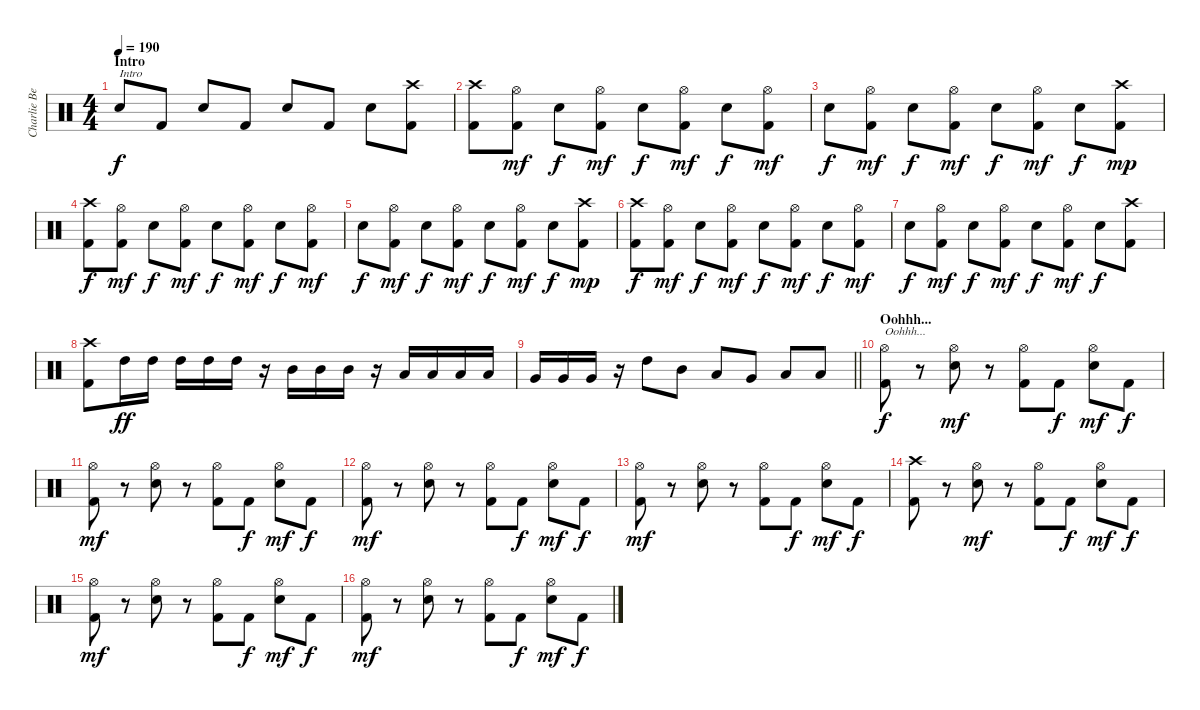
\track ("Charlie Benante" "Charlie Be") {instrument percussion}
\staff {score}
\articulation defaults
\ts (4 4)
\section ("" "Intro")
\tempo 190
\clef neutral
\ks c "Electric Snare (hit)".8{txt "Intro" dy f} "Kick (hit) 2".8 "Electric Snare (hit)".8 "Kick (hit) 2".8 "Electric Snare (hit)".8 "Kick (hit) 2".8 "Electric Snare (hit)".8
("Crash high (hit)" "Kick (hit) 2").8 |
("Crash high (hit)" "Kick (hit) 2").8 ("Hi-Hat (open)" "Kick (hit) 2").8{dy mf} "Electric Snare (hit)".8{dy f} ("Hi-Hat (open)" "Kick (hit) 2").8{dy mf} "Electric Snare (hit)".8{dy f} ("Hi-Hat (open)" "Kick (hit) 2").8{dy mf} "Electric Snare (hit)".8{dy f} ("Hi-Hat (open)" "Kick (hit) 2").8{dy mf} |
"Electric Snare (hit)".8{dy f} ("Hi-Hat (open)" "Kick (hit) 2").8{dy mf} "Electric Snare (hit)".8{dy f} ("Hi-Hat (open)" "Kick (hit) 2").8{dy mf} "Electric Snare (hit)".8{dy f} ("Hi-Hat (open)" "Kick (hit) 2").8{dy mf} "Electric Snare (hit)".8{dy f} ("Crash high (hit)" "Kick (hit) 2").8{dy mp} |
("Crash high (hit)" "Kick (hit) 2").8{dy f} ("Hi-Hat (open)" "Kick (hit) 2").8{dy mf} "Electric Snare (hit)".8{dy f} ("Hi-Hat (open)" "Kick (hit) 2").8{dy mf} "Electric Snare (hit)".8{dy f} ("Hi-Hat (open)" "Kick (hit) 2").8{dy mf} "Electric Snare (hit)".8{dy f} ("Hi-Hat (open)" "Kick (hit) 2").8{dy mf} |
"Electric Snare (hit)".8{dy f} ("Hi-Hat (open)" "Kick (hit) 2").8{dy mf} "Electric Snare (hit)".8{dy f} ("Hi-Hat (open)" "Kick (hit) 2").8{dy mf} "Electric Snare (hit)".8{dy f} ("Hi-Hat (open)" "Kick (hit) 2").8{dy mf} "Electric Snare (hit)".8{dy f} ("Crash high (hit)" "Kick (hit) 2").8{dy mp} |
("Crash high (hit)" "Kick (hit) 2").8{dy f} ("Hi-Hat (open)" "Kick (hit) 2").8{dy mf} "Electric Snare (hit)".8{dy f} ("Hi-Hat (open)" "Kick (hit) 2").8{dy mf} "Electric Snare (hit)".8{dy f} ("Hi-Hat (open)" "Kick (hit) 2").8{dy mf} "Electric Snare (hit)".8{dy f} ("Hi-Hat (open)" "Kick (hit) 2").8{dy mf} |
"Electric Snare (hit)".8{dy f} ("Hi-Hat (open)" "Kick (hit) 2").8{dy mf} "Electric Snare (hit)".8{dy f} ("Hi-Hat (open)" "Kick (hit) 2").8{dy mf} "Electric Snare (hit)".8{dy f} ("Hi-Hat (open)" "Kick (hit) 2").8{dy mf} "Electric Snare (hit)".8{dy f} ("Crash high (hit)" "Kick (hit) 2").8 |
("Crash high (hit)" "Kick (hit) 2").8 "High Tom (hit)".16{dy ff} "High Tom (hit)".16 "High Tom (hit)".16 "High Tom (hit)".16 "High Tom (hit)".16 r.16 "Mid Tom (hit)".16 "Mid Tom (hit)".16 "Mid Tom (hit)".16 r.16 "Low Tom (hit)".16 "Low Tom (hit)".16 "Low Tom (hit)".16 "Low Tom (hit)".16 |
\barLineRight lightlight "Very Low Tom (hit)".16 "Very Low Tom (hit)".16 "Very Low Tom (hit)".16
r.16 "High Tom (hit)".8 "Mid Tom (hit)".8 "Low Tom (hit)".8 "Very Low Tom (hit)".8 "Low Floor Tom (hit)".8 "Low Tom (hit)".8 |
\section ("" "Oohhh...")
("Hi-Hat (open)" "Kick (hit) 2").8{txt "Oohhh..." dy f} r.8 ("Hi-Hat (open)" "Electric Snare (hit)").8{dy mf} r.8 ("Hi-Hat (open)" "Kick (hit) 2").8 "Kick (hit) 2".8{dy f} ("Hi-Hat (open)" "Electric Snare (hit)").8{dy mf} "Kick (hit) 2".8{dy f} |
("Hi-Hat (open)" "Kick (hit) 2").8{dy mf} r.8 ("Hi-Hat (open)" "Electric Snare (hit)").8 r.8 ("Hi-Hat (open)" "Kick (hit) 2").8 "Kick (hit) 2".8{dy f} ("Hi-Hat (open)" "Electric Snare (hit)").8{dy mf} "Kick (hit) 2".8{dy f} |
("Hi-Hat (open)" "Kick (hit) 2").8{dy mf} r.8 ("Hi-Hat (open)" "Electric Snare (hit)").8 r.8 ("Hi-Hat (open)" "Kick (hit) 2").8 "Kick (hit) 2".8{dy f} ("Hi-Hat (open)" "Electric Snare (hit)").8{dy mf} "Kick (hit) 2".8{dy f} |
("Hi-Hat (open)" "Kick (hit) 2").8{dy mf} r.8 ("Hi-Hat (open)" "Electric Snare (hit)").8 r.8 ("Hi-Hat (open)" "Kick (hit) 2").8 "Kick (hit) 2".8{dy f} ("Hi-Hat (open)" "Electric Snare (hit)").8{dy mf} "Kick (hit) 2".8{dy f} |
("Crash high (hit)" "Kick (hit) 2").8 r.8 ("Hi-Hat (open)" "Electric Snare (hit)").8{dy mf} r.8 ("Hi-Hat (open)" "Kick (hit) 2").8 "Kick (hit) 2".8{dy f} ("Hi-Hat (open)" "Electric Snare (hit)").8{dy mf} "Kick (hit) 2".8{dy f} |
("Hi-Hat (open)" "Kick (hit) 2").8{dy mf} r.8 ("Hi-Hat (open)" "Electric Snare (hit)").8 r.8 ("Hi-Hat (open)" "Kick (hit) 2").8 "Kick (hit) 2".8{dy f} ("Hi-Hat (open)" "Electric Snare (hit)").8{dy mf} "Kick (hit) 2".8{dy f} |
("Hi-Hat (open)" "Kick (hit) 2").8{dy mf} r.8 ("Hi-Hat (open)" "Electric Snare (hit)").8 r.8 ("Hi-Hat (open)" "Kick (hit) 2").8 "Kick (hit) 2".8{dy f} ("Hi-Hat (open)" "Electric Snare (hit)").8{dy mf} "Kick (hit) 2".8{dy f}
